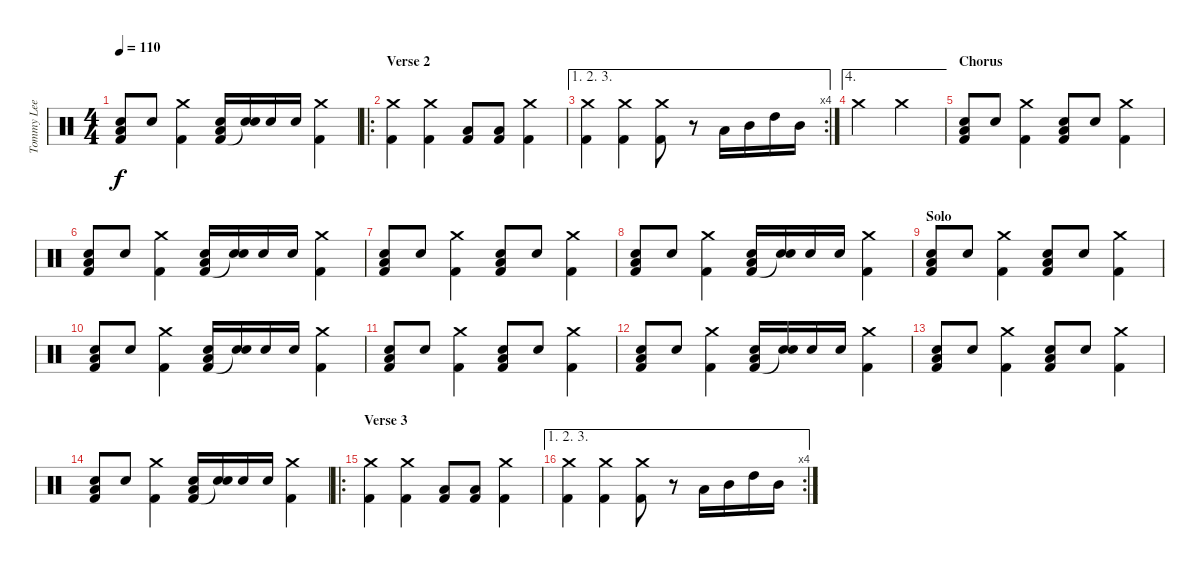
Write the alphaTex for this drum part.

\track ("Tommy Lee" "Tommy Lee") {instrument percussion}
\staff {score}
\articulation defaults
\ts (4 4)
\tempo 110
\clef neutral
\ks c
("Kick (hit) 2" "Low Floor Tom (hit)" "Electric Snare (hit)").8{dy f} "Electric Snare (hit)".8 ("Kick (hit) 2" "Crash medium (hit)").4 ("Kick (hit) 2" "Low Floor Tom (hit)" "Electric Snare (hit)").16 ("Snare (hit)"{t} "Electric Snare (hit)").16 "Electric Snare (hit)".16 "Electric Snare (hit)".16 ("Kick (hit) 2" "Crash medium (hit)").4 |
\ro
\section ("" "Verse 2")
("Kick (hit) 2" "Crash medium (hit)").4 ("Kick (hit) 2" "Crash medium (hit)").4 ("Kick (hit) 2" "Low Floor Tom (hit)").8 ("Kick (hit) 2" "Low Floor Tom (hit)").8 ("Kick (hit) 2" "Crash medium (hit)").4 |
\ae (1 2 3)
\rc 4
("Kick (hit) 2" "Crash medium (hit)").4 ("Kick (hit) 2" "Crash medium (hit)").4 ("Kick (hit) 2" "Crash medium (hit)").8 r.8 "Low Tom (hit)".16 "Mid Tom (hit)".16 "High Tom (hit)".16 "Mid Tom (hit)".16 |
\ae 4 "Crash medium (hit)".2 "Crash medium (hit)".2
|
\section ("" "Chorus")
("Kick (hit) 2" "Low Floor Tom (hit)" "Electric Snare (hit)").8 "Electric Snare (hit)".8 ("Kick (hit) 2" "Crash medium (hit)").4 ("Kick (hit) 2" "Low Floor Tom (hit)" "Electric Snare (hit)").8 "Electric Snare (hit)".8 ("Kick (hit) 2" "Crash medium (hit)").4 |
("Kick (hit) 2" "Low Floor Tom (hit)" "Electric Snare (hit)").8 "Electric Snare (hit)".8 ("Kick (hit) 2" "Crash medium (hit)").4 ("Kick (hit) 2" "Low Floor Tom (hit)" "Electric Snare (hit)").16 ("Snare (hit)"{t} "Electric Snare (hit)").16 "Electric Snare (hit)".16 "Electric Snare (hit)".16 ("Kick (hit) 2" "Crash medium (hit)").4 |
("Kick (hit) 2" "Low Floor Tom (hit)" "Electric Snare (hit)").8 "Electric Snare (hit)".8 ("Kick (hit) 2" "Crash medium (hit)").4 ("Kick (hit) 2" "Low Floor Tom (hit)" "Electric Snare (hit)").8 "Electric Snare (hit)".8 ("Kick (hit) 2" "Crash medium (hit)").4 |
("Kick (hit) 2" "Low Floor Tom (hit)" "Electric Snare (hit)").8 "Electric Snare (hit)".8 ("Kick (hit) 2" "Crash medium (hit)").4 ("Kick (hit) 2" "Low Floor Tom (hit)" "Electric Snare (hit)").16 ("Snare (hit)"{t} "Electric Snare (hit)").16 "Electric Snare (hit)".16 "Electric Snare (hit)".16 ("Kick (hit) 2" "Crash medium (hit)").4 |
\section ("" "Solo")
("Kick (hit) 2" "Low Floor Tom (hit)" "Electric Snare (hit)").8 "Electric Snare (hit)".8 ("Kick (hit) 2" "Crash medium (hit)").4 ("Kick (hit) 2" "Low Floor Tom (hit)" "Electric Snare (hit)").8 "Electric Snare (hit)".8 ("Kick (hit) 2" "Crash medium (hit)").4 |
("Kick (hit) 2" "Low Floor Tom (hit)" "Electric Snare (hit)").8 "Electric Snare (hit)".8 ("Kick (hit) 2" "Crash medium (hit)").4 ("Kick (hit) 2" "Low Floor Tom (hit)" "Electric Snare (hit)").16 ("Snare (hit)"{t} "Electric Snare (hit)").16 "Electric Snare (hit)".16 "Electric Snare (hit)".16 ("Kick (hit) 2" "Crash medium (hit)").4 |
("Kick (hit) 2" "Low Floor Tom (hit)" "Electric Snare (hit)").8 "Electric Snare (hit)".8 ("Kick (hit) 2" "Crash medium (hit)").4 ("Kick (hit) 2" "Low Floor Tom (hit)" "Electric Snare (hit)").8 "Electric Snare (hit)".8 ("Kick (hit) 2" "Crash medium (hit)").4 |
("Kick (hit) 2" "Low Floor Tom (hit)" "Electric Snare (hit)").8 "Electric Snare (hit)".8 ("Kick (hit) 2" "Crash medium (hit)").4 ("Kick (hit) 2" "Low Floor Tom (hit)" "Electric Snare (hit)").16 ("Snare (hit)"{t} "Electric Snare (hit)").16 "Electric Snare (hit)".16 "Electric Snare (hit)".16 ("Kick (hit) 2" "Crash medium (hit)").4 |
("Kick (hit) 2" "Low Floor Tom (hit)" "Electric Snare (hit)").8 "Electric Snare (hit)".8 ("Kick (hit) 2" "Crash medium (hit)").4 ("Kick (hit) 2" "Low Floor Tom (hit)" "Electric Snare (hit)").8 "Electric Snare (hit)".8 ("Kick (hit) 2" "Crash medium (hit)").4 |
("Kick (hit) 2" "Low Floor Tom (hit)" "Electric Snare (hit)").8 "Electric Snare (hit)".8 ("Kick (hit) 2" "Crash medium (hit)").4 ("Kick (hit) 2" "Low Floor Tom (hit)" "Electric Snare (hit)").16 ("Snare (hit)"{t} "Electric Snare (hit)").16 "Electric Snare (hit)".16 "Electric Snare (hit)".16 ("Kick (hit) 2" "Crash medium (hit)").4 |
\ro
\section ("" "Verse 3")
("Kick (hit) 2" "Crash medium (hit)").4 ("Kick (hit) 2" "Crash medium (hit)").4 ("Kick (hit) 2" "Low Floor Tom (hit)").8 ("Kick (hit) 2" "Low Floor Tom (hit)").8 ("Kick (hit) 2" "Crash medium (hit)").4 |
\ae (1 2 3)
\rc 4
("Kick (hit) 2" "Crash medium (hit)").4 ("Kick (hit) 2" "Crash medium (hit)").4 ("Kick (hit) 2" "Crash medium (hit)").8 r.8 "Low Tom (hit)".16 "Mid Tom (hit)".16 "High Tom (hit)".16 "Mid Tom (hit)".16
